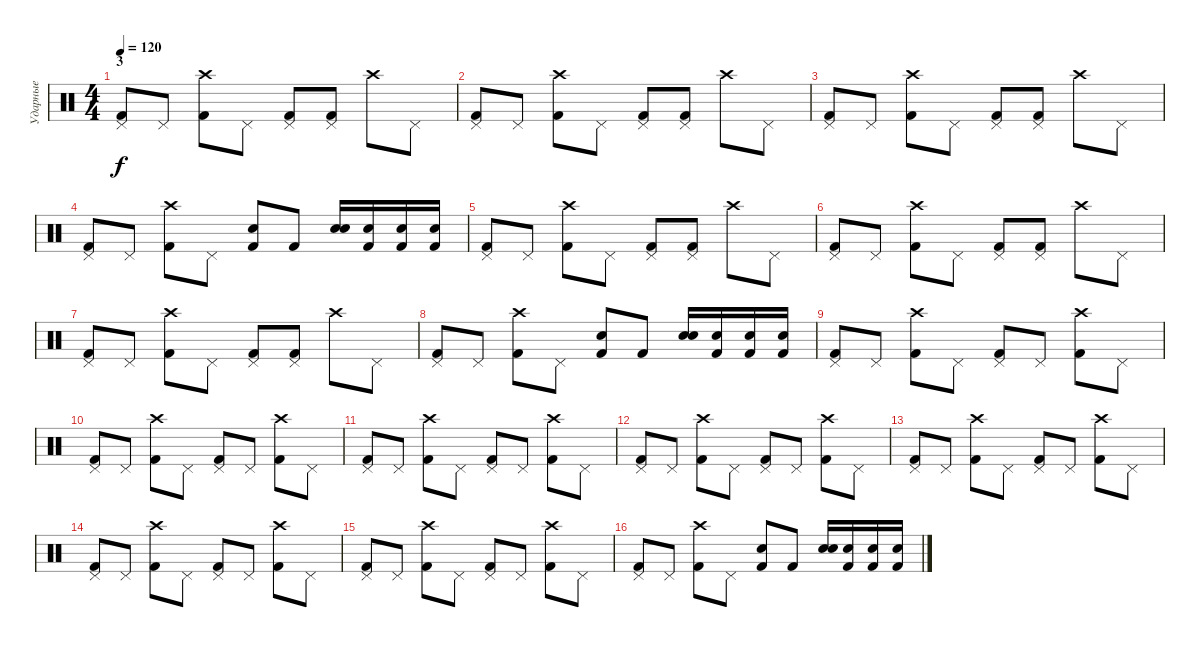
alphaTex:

\track ("Ударные" "Ударные") {instrument percussion}
\staff {score}
\articulation defaults
\ts (4 4)
\section ("" "3")
\tempo 120
\clef neutral
\ks c
("Pedal Hi-Hat (hit)" "Kick (hit) 2").8{dy f} "Pedal Hi-Hat (hit)".8 ("Crash high (hit)" "Kick (hit) 2").8 "Pedal Hi-Hat (hit)".8 ("Pedal Hi-Hat (hit)" "Kick (hit) 2").8 ("Pedal Hi-Hat (hit)" "Kick (hit) 2").8 "Crash high (hit)".8 "Pedal Hi-Hat (hit)".8 |
("Pedal Hi-Hat (hit)" "Kick (hit) 2").8 "Pedal Hi-Hat (hit)".8 ("Crash high (hit)" "Kick (hit) 2").8 "Pedal Hi-Hat (hit)".8 ("Pedal Hi-Hat (hit)" "Kick (hit) 2").8 ("Pedal Hi-Hat (hit)" "Kick (hit) 2").8 "Crash high (hit)".8 "Pedal Hi-Hat (hit)".8 |
("Pedal Hi-Hat (hit)" "Kick (hit) 2").8 "Pedal Hi-Hat (hit)".8 ("Crash high (hit)" "Kick (hit) 2").8 "Pedal Hi-Hat (hit)".8 ("Pedal Hi-Hat (hit)" "Kick (hit) 2").8 ("Pedal Hi-Hat (hit)" "Kick (hit) 2").8 "Crash high (hit)".8 "Pedal Hi-Hat (hit)".8 |
("Pedal Hi-Hat (hit)" "Kick (hit) 2").8 "Pedal Hi-Hat (hit)".8 ("Crash high (hit)" "Kick (hit) 2").8 "Pedal Hi-Hat (hit)".8 ("Kick (hit) 2" "Electric Snare (hit)").8 "Kick (hit) 2".8 ("Snare (hit) 2" "Electric Snare (hit)").16 ("Snare (hit) 2" "Kick (hit) 2").16 ("Snare (hit) 2" "Kick (hit) 2").16 ("Snare (hit) 2" "Kick (hit) 2").16 |
("Pedal Hi-Hat (hit)" "Kick (hit) 2").8 "Pedal Hi-Hat (hit)".8 ("Crash high (hit)" "Kick (hit) 2").8 "Pedal Hi-Hat (hit)".8 ("Pedal Hi-Hat (hit)" "Kick (hit) 2").8 ("Pedal Hi-Hat (hit)" "Kick (hit) 2").8 "Crash high (hit)".8 "Pedal Hi-Hat (hit)".8 |
("Pedal Hi-Hat (hit)" "Kick (hit) 2").8 "Pedal Hi-Hat (hit)".8 ("Crash high (hit)" "Kick (hit) 2").8 "Pedal Hi-Hat (hit)".8 ("Pedal Hi-Hat (hit)" "Kick (hit) 2").8 ("Pedal Hi-Hat (hit)" "Kick (hit) 2").8 "Crash high (hit)".8 "Pedal Hi-Hat (hit)".8 |
("Pedal Hi-Hat (hit)" "Kick (hit) 2").8 "Pedal Hi-Hat (hit)".8 ("Crash high (hit)" "Kick (hit) 2").8 "Pedal Hi-Hat (hit)".8 ("Pedal Hi-Hat (hit)" "Kick (hit) 2").8 ("Pedal Hi-Hat (hit)" "Kick (hit) 2").8 "Crash high (hit)".8 "Pedal Hi-Hat (hit)".8 |
("Pedal Hi-Hat (hit)" "Kick (hit) 2").8 "Pedal Hi-Hat (hit)".8 ("Crash high (hit)" "Kick (hit) 2").8 "Pedal Hi-Hat (hit)".8 ("Kick (hit) 2" "Electric Snare (hit)").8 "Kick (hit) 2".8 ("Snare (hit) 2" "Electric Snare (hit)").16 ("Snare (hit) 2" "Kick (hit) 2").16 ("Snare (hit) 2" "Kick (hit) 2").16 ("Snare (hit) 2" "Kick (hit) 2").16 |
("Pedal Hi-Hat (hit)" "Kick (hit) 2").8 "Pedal Hi-Hat (hit)".8 ("Crash high (hit)" "Kick (hit) 2").8 "Pedal Hi-Hat (hit)".8 ("Pedal Hi-Hat (hit)" "Kick (hit) 2").8 "Pedal Hi-Hat (hit)".8 ("Crash high (hit)" "Kick (hit) 2").8 "Pedal Hi-Hat (hit)".8 |
("Pedal Hi-Hat (hit)" "Kick (hit) 2").8 "Pedal Hi-Hat (hit)".8 ("Crash high (hit)" "Kick (hit) 2").8 "Pedal Hi-Hat (hit)".8 ("Pedal Hi-Hat (hit)" "Kick (hit) 2").8 "Pedal Hi-Hat (hit)".8 ("Crash high (hit)" "Kick (hit) 2").8 "Pedal Hi-Hat (hit)".8 |
("Pedal Hi-Hat (hit)" "Kick (hit) 2").8 "Pedal Hi-Hat (hit)".8 ("Crash high (hit)" "Kick (hit) 2").8 "Pedal Hi-Hat (hit)".8 ("Pedal Hi-Hat (hit)" "Kick (hit) 2").8 "Pedal Hi-Hat (hit)".8 ("Crash high (hit)" "Kick (hit) 2").8 "Pedal Hi-Hat (hit)".8 |
("Pedal Hi-Hat (hit)" "Kick (hit) 2").8 "Pedal Hi-Hat (hit)".8 ("Crash high (hit)" "Kick (hit) 2").8 "Pedal Hi-Hat (hit)".8 ("Pedal Hi-Hat (hit)" "Kick (hit) 2").8 "Pedal Hi-Hat (hit)".8 ("Crash high (hit)" "Kick (hit) 2").8 "Pedal Hi-Hat (hit)".8 |
("Pedal Hi-Hat (hit)" "Kick (hit) 2").8 "Pedal Hi-Hat (hit)".8 ("Crash high (hit)" "Kick (hit) 2").8 "Pedal Hi-Hat (hit)".8 ("Pedal Hi-Hat (hit)" "Kick (hit) 2").8 "Pedal Hi-Hat (hit)".8 ("Crash high (hit)" "Kick (hit) 2").8 "Pedal Hi-Hat (hit)".8 |
("Pedal Hi-Hat (hit)" "Kick (hit) 2").8 "Pedal Hi-Hat (hit)".8 ("Crash high (hit)" "Kick (hit) 2").8 "Pedal Hi-Hat (hit)".8 ("Pedal Hi-Hat (hit)" "Kick (hit) 2").8 "Pedal Hi-Hat (hit)".8 ("Crash high (hit)" "Kick (hit) 2").8 "Pedal Hi-Hat (hit)".8 |
("Pedal Hi-Hat (hit)" "Kick (hit) 2").8 "Pedal Hi-Hat (hit)".8 ("Crash high (hit)" "Kick (hit) 2").8 "Pedal Hi-Hat (hit)".8 ("Pedal Hi-Hat (hit)" "Kick (hit) 2").8 "Pedal Hi-Hat (hit)".8 ("Crash high (hit)" "Kick (hit) 2").8 "Pedal Hi-Hat (hit)".8 |
("Pedal Hi-Hat (hit)" "Kick (hit) 2").8 "Pedal Hi-Hat (hit)".8 ("Crash high (hit)" "Kick (hit) 2").8 "Pedal Hi-Hat (hit)".8 ("Kick (hit) 2" "Electric Snare (hit)").8 "Kick (hit) 2".8 ("Snare (hit) 2" "Electric Snare (hit)").16 ("Snare (hit) 2" "Kick (hit) 2").16 ("Snare (hit) 2" "Kick (hit) 2").16 ("Snare (hit) 2" "Kick (hit) 2").16
